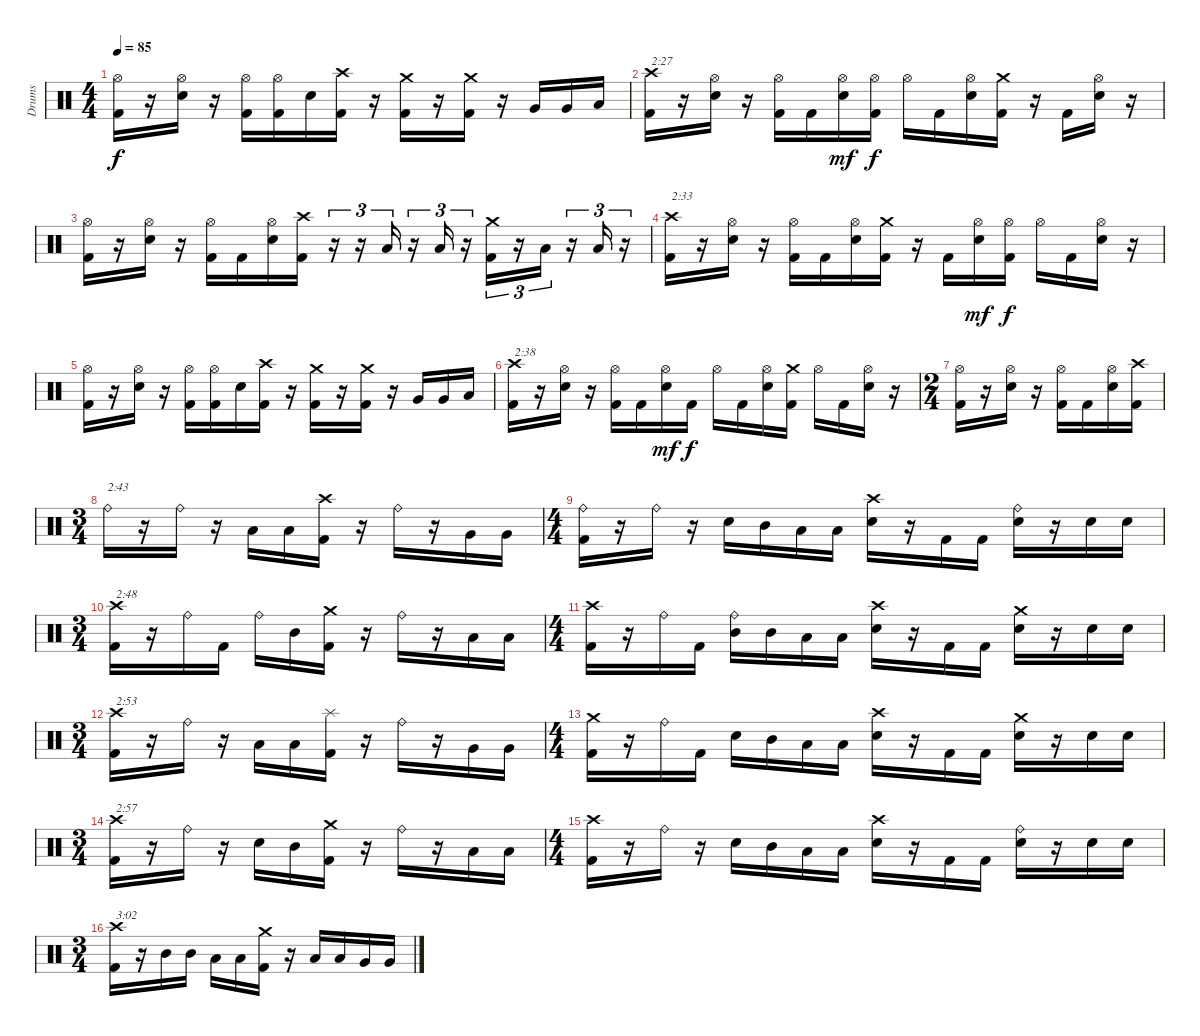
\track ("Drums" "Drums") {instrument percussion}
\staff {score}
\articulation defaults
\ts (4 4)
\tempo 85
\clef neutral
\ks c
("Hi-Hat (open)" "Kick (hit) 2").16{dy f} r.16 ("Hi-Hat (open)" "Electric Snare (hit)").16 r.16 ("Hi-Hat (open)" "Kick (hit) 2").16 ("Hi-Hat (open)" "Kick (hit) 2").16 "Electric Snare (hit)".16 ("Crash high (hit)" "Kick (hit) 2").16 r.16 ("Crash medium (hit)" "Kick (hit) 2").16 r.16 ("Crash medium (hit)" "Kick (hit) 2").16 r.16 "Very Low Tom (hit)".16 "Very Low Tom (hit)".16 "Low Floor Tom (hit)".16 |
("Crash high (hit)" "Kick (hit) 2").16{txt "2:27"} r.16 ("Hi-Hat (open)" "Electric Snare (hit)").16 r.16 ("Hi-Hat (open)" "Kick (hit) 2").16 "Kick (hit) 2".16 ("Hi-Hat (open)" "Electric Snare (hit)").16{dy mf} ("Hi-Hat (open)" "Kick (hit) 2").16{dy f} "Hi-Hat (open)".16 "Kick (hit) 2".16 ("Hi-Hat (open)" "Electric Snare (hit)").16 ("Crash medium (hit)" "Kick (hit) 2").16 r.16 "Kick (hit) 2".16 ("Hi-Hat (open)" "Electric Snare (hit)").16 r.16 |
("Hi-Hat (open)" "Kick (hit) 2").16 r.16 ("Hi-Hat (open)" "Electric Snare (hit)").16 r.16 ("Hi-Hat (open)" "Kick (hit) 2").16 "Kick (hit) 2".16 ("Hi-Hat (open)" "Electric Snare (hit)").16 ("Crash high (hit)" "Kick (hit) 2").16 r.16{tu (3 2)} r.16{tu (3 2)} "Low Floor Tom (hit)".16{tu (3 2)} r.16{tu (3 2)} "Low Floor Tom (hit)".16{tu (3 2)} r.16{tu (3 2)} ("Crash medium (hit)" "Kick (hit) 2").16{tu (3 2)} r.16{tu (3 2)} "Low Floor Tom (hit)".16{tu (3 2)} r.16{tu (3 2)} "Low Floor Tom (hit)".16{tu (3 2)} r.16{tu (3 2)} |
("Crash high (hit)" "Kick (hit) 2").16{txt "2:33"} r.16 ("Hi-Hat (open)" "Electric Snare (hit)").16 r.16 ("Hi-Hat (open)" "Kick (hit) 2").16 "Kick (hit) 2".16 ("Hi-Hat (open)" "Electric Snare (hit)").16 ("Crash medium (hit)" "Kick (hit) 2").16 r.16 "Kick (hit) 2".16 ("Hi-Hat (open)" "Electric Snare (hit)").16{dy mf} ("Hi-Hat (open)" "Kick (hit) 2").16{dy f} "Hi-Hat (open)".16 "Kick (hit) 2".16 ("Hi-Hat (open)" "Electric Snare (hit)").16 r.16 |
("Hi-Hat (open)" "Kick (hit) 2").16 r.16 ("Hi-Hat (open)" "Electric Snare (hit)").16 r.16 ("Hi-Hat (open)" "Kick (hit) 2").16 ("Hi-Hat (open)" "Kick (hit) 2").16 "Electric Snare (hit)".16 ("Crash high (hit)" "Kick (hit) 2").16 r.16 ("Crash medium (hit)" "Kick (hit) 2").16 r.16 ("Crash medium (hit)" "Kick (hit) 2").16 r.16 "Very Low Tom (hit)".16 "Very Low Tom (hit)".16 "Low Floor Tom (hit)".16 |
("Crash high (hit)" "Kick (hit) 2").16{txt "2:38"} r.16 ("Hi-Hat (open)" "Electric Snare (hit)").16 r.16 ("Hi-Hat (open)" "Kick (hit) 2").16 "Kick (hit) 2".16 ("Hi-Hat (open)" "Electric Snare (hit)").16{dy mf} "Kick (hit) 2".16{dy f} "Hi-Hat (open)".16 "Kick (hit) 2".16 ("Hi-Hat (open)" "Electric Snare (hit)").16 ("Crash medium (hit)" "Kick (hit) 2").16 "Hi-Hat (open)".16 "Kick (hit) 2".16 ("Hi-Hat (open)" "Electric Snare (hit)").16 r.16 |
\ts (2 4)
("Hi-Hat (open)" "Kick (hit) 2").16 r.16 ("Hi-Hat (open)" "Electric Snare (hit)").16 r.16 ("Hi-Hat (open)" "Kick (hit) 2").16 "Kick (hit) 2".16 ("Hi-Hat (open)" "Electric Snare (hit)").16 ("Crash high (hit)" "Kick (hit) 2").16 |
\ts (3 4)
"Ride (bell)".16{txt "2:43"} r.16 "Ride (bell)".16 r.16 "Low Tom (hit)".16 "Low Tom (hit)".16 ("Crash high (hit)" "Kick (hit) 2").16 r.16 "Ride (bell)".16 r.16 "Very Low Tom (hit)".16 "Very Low Tom (hit)".16 |
\ts (4 4)
("Ride (bell)" "Kick (hit) 2").16 r.16 "Ride (bell)".16 r.16 "Electric Snare (hit)".16 "Mid Tom (hit)".16 "Low Tom (hit)".16 "Low Tom (hit)".16 ("Crash high (hit)" "Electric Snare (hit)").16 r.16 "Kick (hit) 2".16 "Kick (hit) 2".16 ("Ride (bell)" "Electric Snare (hit)").16 r.16 "Electric Snare (hit)".16 "Electric Snare (hit)".16 |
\ts (3 4)
("Crash high (hit)" "Kick (hit) 2").16{txt "2:48"} r.16 "Ride (bell)".16 "Kick (hit) 2".16 "Ride (bell)".16 "Mid Tom (hit)".16 ("Crash medium (hit)" "Kick (hit) 2").16 r.16 "Ride (bell)".16 r.16 "Low Tom (hit)".16 "Low Tom (hit)".16 |
\ts (4 4)
("Crash high (hit)" "Kick (hit) 2").16 r.16 "Ride (bell)".16 "Kick (hit) 2".16 ("Ride (bell)" "Mid Tom (hit)").16 "Mid Tom (hit)".16 "Low Tom (hit)".16 "Low Tom (hit)".16 ("Crash high (hit)" "Electric Snare (hit)").16 r.16 "Kick (hit) 2".16 "Kick (hit) 2".16 ("Crash medium (hit)" "Electric Snare (hit)").16 r.16 "Electric Snare (hit)".16 "Electric Snare (hit)".16 |
\ts (3 4)
("Crash high (hit)" "Kick (hit) 2").16{txt "2:53"} r.16 "Ride (bell)".16 r.16 "Low Tom (hit)".16 "Low Tom (hit)".16 ("Splash (hit)" "Kick (hit) 2").16 r.16 "Ride (bell)".16 r.16 "Very Low Tom (hit)".16 "Very Low Tom (hit)".16 |
\ts (4 4)
("Crash medium (hit)" "Kick (hit) 2").16 r.16 "Ride (bell)".16 "Kick (hit) 2".16 "Electric Snare (hit)".16 "Mid Tom (hit)".16 "Low Tom (hit)".16 "Low Tom (hit)".16 ("Crash high (hit)" "Electric Snare (hit)").16 r.16 "Kick (hit) 2".16 "Kick (hit) 2".16 ("Crash medium (hit)" "Electric Snare (hit)").16 r.16 "Electric Snare (hit)".16 "Electric Snare (hit)".16 |
\ts (3 4)
("Crash high (hit)" "Kick (hit) 2").16{txt "2:57"} r.16 "Ride (bell)".16 r.16 "Electric Snare (hit)".16 "Mid Tom (hit)".16 ("Crash medium (hit)" "Kick (hit) 2").16 r.16 "Ride (bell)".16 r.16 "Low Tom (hit)".16 "Low Tom (hit)".16 |
\ts (4 4)
("Crash high (hit)" "Kick (hit) 2").16 r.16 "Ride (bell)".16 r.16 "Electric Snare (hit)".16 "Mid Tom (hit)".16 "Low Tom (hit)".16 "Low Tom (hit)".16 ("Crash high (hit)" "Electric Snare (hit)").16 r.16 "Kick (hit) 2".16 "Kick (hit) 2".16 ("Ride (bell)" "Electric Snare (hit)").16 r.16 "Electric Snare (hit)".16 "Electric Snare (hit)".16 |
\ts (3 4)
("Crash high (hit)" "Kick (hit) 2").16{txt "3:02"} r.16 "Mid Tom (hit)".16 "Mid Tom (hit)".16 "Low Tom (hit)".16 "Low Tom (hit)".16 ("Crash medium (hit)" "Kick (hit) 2").16 r.16 "Low Tom (hit)".16 "Low Tom (hit)".16 "Very Low Tom (hit)".16 "Very Low Tom (hit)".16
